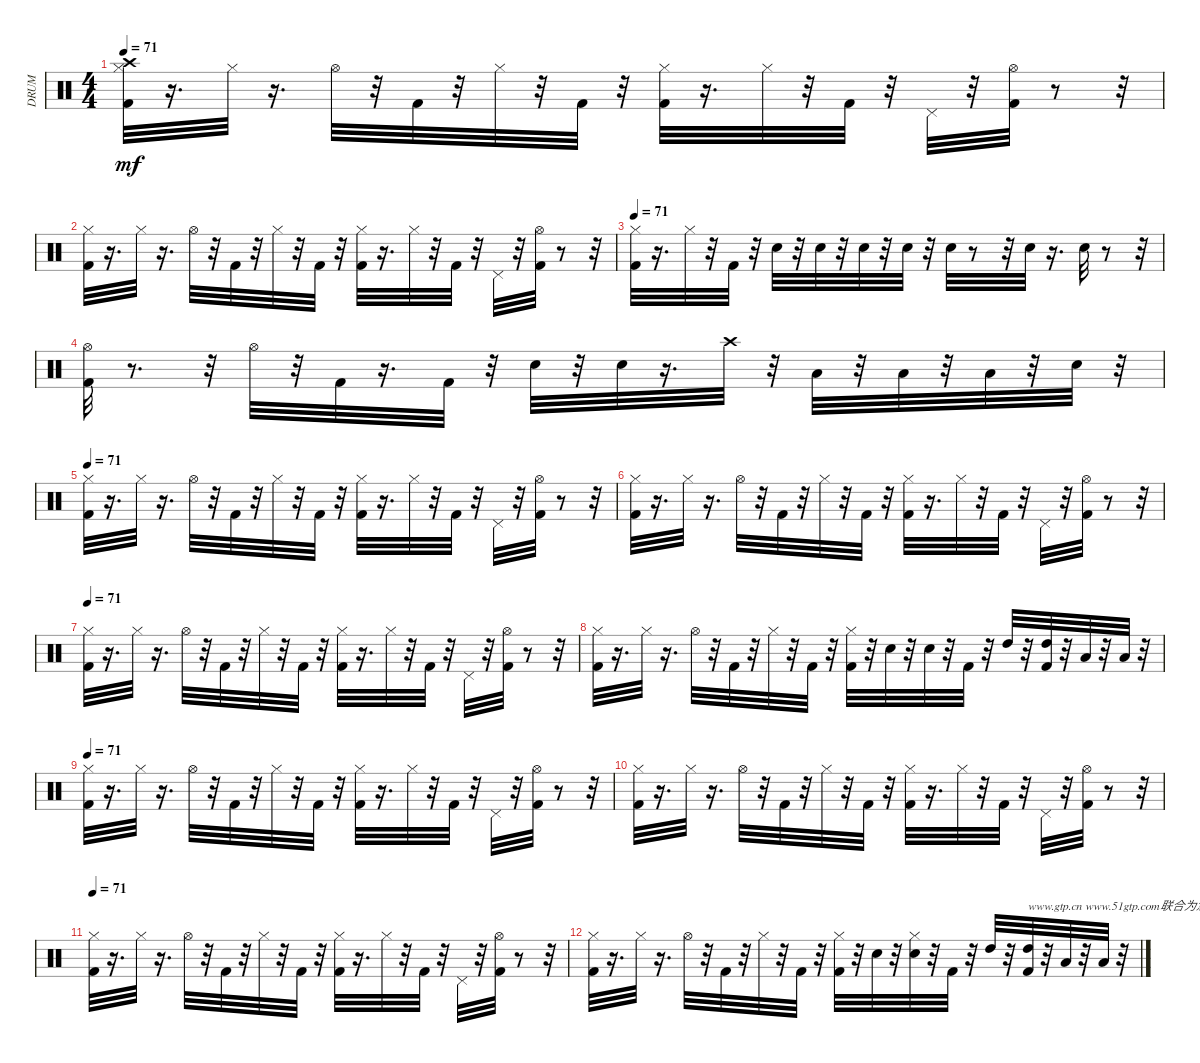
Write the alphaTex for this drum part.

\track ("DRUM" "DRUM") {instrument percussion}
\staff {score}
\articulation defaults
\ts (4 4)
\tempo 71
\clef neutral
\ks c
("Kick (hit) 2" "Hi-Hat (closed)" "Crash high (hit)").32{dy mf} r.16{d} "Hi-Hat (closed)".32 r.16{d} "Hi-Hat (open)".32 r.32 "Kick (hit) 2".32 r.32 "Hi-Hat (closed)".32 r.32 "Kick (hit) 2".32 r.32 ("Kick (hit) 2" "Hi-Hat (closed)").32 r.16{d} "Hi-Hat (closed)".32 r.32 "Kick (hit) 2".32 r.32 "Pedal Hi-Hat (hit)".32 r.32 ("Kick (hit) 2" "Hi-Hat (open)").32 r.8 r.32 |
("Kick (hit) 2" "Hi-Hat (closed)").32 r.16{d} "Hi-Hat (closed)".32 r.16{d} "Hi-Hat (open)".32 r.32 "Kick (hit) 2".32 r.32 "Hi-Hat (closed)".32 r.32 "Kick (hit) 2".32 r.32 ("Kick (hit) 2" "Hi-Hat (closed)").32 r.16{d} "Hi-Hat (closed)".32 r.32 "Kick (hit) 2".32 r.32 "Pedal Hi-Hat (hit)".32 r.32 ("Kick (hit) 2" "Hi-Hat (open)").32 r.8 r.32 |
\tempo 71
("Kick (hit) 2" "Hi-Hat (closed)").32 r.16{d} "Hi-Hat (closed)".32 r.32 "Kick (hit) 2".32 r.32 "Snare (hit) 2".32 r.32 "Snare (hit) 2".32 r.32 "Snare (hit) 2".32 r.32 "Snare (hit) 2".32 r.32 "Snare (hit) 2".32 r.8 r.32 "Snare (hit) 2".32 r.16{d} "Snare (hit) 2".32 r.8 r.32 |
("Kick (hit) 2" "Hi-Hat (open)").32 r.8{d} r.32 "Hi-Hat (open)".32 r.32 "Kick (hit) 2".32 r.16{d} "Kick (hit) 2".32 r.32 "Snare (hit) 2".32 r.32 "Snare (hit) 2".32 r.16{d} "Crash high (hit)".32 r.32 "Low Tom (hit)".32 r.32 "Low Tom (hit)".32 r.32 "Low Floor Tom (hit)".32 r.32 "Snare (hit) 2".32 r.32 |
\tempo 71
("Kick (hit) 2" "Hi-Hat (closed)").32{volume 14} r.16{d} "Hi-Hat (closed)".32 r.16{d} "Hi-Hat (open)".32 r.32 "Kick (hit) 2".32{volume 14} r.32 "Hi-Hat (closed)".32 r.32 "Kick (hit) 2".32 r.32 ("Kick (hit) 2" "Hi-Hat (closed)").32 r.16{d} "Hi-Hat (closed)".32{volume 14} r.32 "Kick (hit) 2".32 r.32 "Pedal Hi-Hat (hit)".32{volume 14} r.32 ("Kick (hit) 2" "Hi-Hat (open)").32 r.8 r.32 |
("Kick (hit) 2" "Hi-Hat (closed)").32{volume 14} r.16{d} "Hi-Hat (closed)".32 r.16{d} "Hi-Hat (open)".32{volume 14} r.32 "Kick (hit) 2".32 r.32 "Hi-Hat (closed)".32 r.32 "Kick (hit) 2".32 r.32 ("Kick (hit) 2" "Hi-Hat (closed)").32{volume 14} r.16{d} "Hi-Hat (closed)".32{volume 14} r.32 "Kick (hit) 2".32 r.32 "Pedal Hi-Hat (hit)".32 r.32 ("Kick (hit) 2" "Hi-Hat (open)").32{volume 13} r.8 r.32 |
\tempo 71
("Kick (hit) 2" "Hi-Hat (closed)").32 r.16{d} "Hi-Hat (closed)".32{volume 13} r.16{d} "Hi-Hat (open)".32 r.32 "Kick (hit) 2".32 r.32 "Hi-Hat (closed)".32{volume 13} r.32 "Kick (hit) 2".32 r.32 ("Kick (hit) 2" "Hi-Hat (closed)").32{volume 13} r.16{d} "Hi-Hat (closed)".32 r.32 "Kick (hit) 2".32{volume 13} r.32 "Pedal Hi-Hat (hit)".32 r.32 ("Kick (hit) 2" "Hi-Hat (open)").32{volume 13} r.8 r.32 |
("Kick (hit) 2" "Hi-Hat (closed)").32{volume 13} r.16{d} "Hi-Hat (closed)".32{volume 12} r.16{d} "Hi-Hat (open)".32{volume 12} r.32 "Kick (hit) 2".32 r.32 "Hi-Hat (closed)".32 r.32 "Kick (hit) 2".32{volume 12} r.32 ("Kick (hit) 2" "Hi-Hat (closed)").32 r.32 "Snare (hit) 2".32{volume 12} r.32 "Snare (hit) 2".32 r.32 "Kick (hit) 2".32{volume 12} r.32 "High Tom (hit)".32 r.32 ("Kick (hit) 2" "High Tom (hit)").32 r.32 "Low Tom (hit)".32 r.32 "Low Floor Tom (hit)".32{volume 12} r.32 |
\tempo 71
("Kick (hit) 2" "Hi-Hat (closed)").32 r.16{d} "Hi-Hat (closed)".32{volume 12} r.16{d} "Hi-Hat (open)".32{volume 12} r.32 "Kick (hit) 2".32{volume 11} r.32 "Hi-Hat (closed)".32 r.32 "Kick (hit) 2".32{volume 11} r.32 ("Kick (hit) 2" "Hi-Hat (closed)").32 r.16{d} "Hi-Hat (closed)".32{volume 11} r.32 "Kick (hit) 2".32 r.32 "Pedal Hi-Hat (hit)".32{volume 11} r.32 ("Kick (hit) 2" "Hi-Hat (open)").32 r.8 r.32 |
("Kick (hit) 2" "Hi-Hat (closed)").32{volume 11} r.16{d} "Hi-Hat (closed)".32{volume 10} r.16{d} "Hi-Hat (open)".32{volume 10} r.32 "Kick (hit) 2".32{volume 10} r.32 "Hi-Hat (closed)".32{volume 10} r.32 "Kick (hit) 2".32{volume 10} r.32 ("Kick (hit) 2" "Hi-Hat (closed)").32{volume 10} r.16{d} "Hi-Hat (closed)".32{volume 10} r.32 "Kick (hit) 2".32{volume 9} r.32 "Pedal Hi-Hat (hit)".32{volume 9} r.32 ("Kick (hit) 2" "Hi-Hat (open)").32{volume 9} r.8 r.32 |
\tempo 71
("Kick (hit) 2" "Hi-Hat (closed)").32{volume 8} r.16{d} "Hi-Hat (closed)".32{volume 8} r.16{d} "Hi-Hat (open)".32{volume 8} r.32 "Kick (hit) 2".32{volume 8} r.32 "Hi-Hat (closed)".32{volume 7} r.32 "Kick (hit) 2".32{volume 7} r.32 ("Kick (hit) 2" "Hi-Hat (closed)").32{volume 7} r.16{d} "Hi-Hat (closed)".32{volume 6} r.32 "Kick (hit) 2".32{volume 6} r.32 "Pedal Hi-Hat (hit)".32{volume 5} r.32 ("Kick (hit) 2" "Hi-Hat (open)").32{volume 4} r.8 r.32 |
("Kick (hit) 2" "Hi-Hat (closed)").32{volume 1} r.16{d} "Hi-Hat (closed)".32{volume 0} r.16{d} "Hi-Hat (open)".32 r.32 "Kick (hit) 2".32 r.32 "Hi-Hat (closed)".32 r.32 "Kick (hit) 2".32 r.32 ("Kick (hit) 2" "Hi-Hat (closed)").32 r.32 "Snare (hit) 2".32 r.32 ("Snare (hit) 2" "Hi-Hat (closed)").32 r.32 "Kick (hit) 2".32 r.32 "High Tom (hit)".32 r.32 ("Kick (hit) 2" "High Tom (hit)").32{txt "www.gtp.cn www.51gtp.com联合为您提供优秀的GTP!"} r.32 "Low Tom (hit)".32 r.32 "Low Floor Tom (hit)".32 r.32
